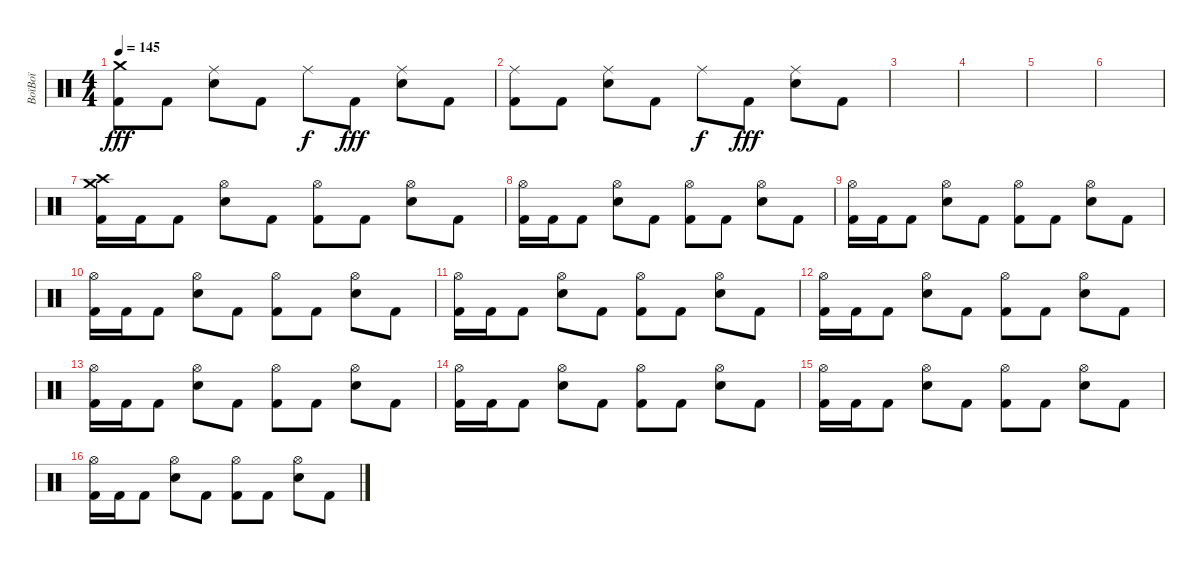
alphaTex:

\track ("BoïBoï" "BoïBoï") {instrument percussion}
\staff {score}
\articulation defaults
\ts (4 4)
\tempo 145
\clef neutral
\ks c
("Crash medium (hit)" "Kick (hit) 2").8{dy fff} "Kick (hit) 2".8 ("Ride (middle)" "Electric Snare (hit)").8 "Kick (hit) 2".8 "Ride (middle)".8{dy f} "Kick (hit) 2".8{dy fff} ("Ride (middle)" "Electric Snare (hit)").8 "Kick (hit) 2".8 |
("Ride (middle)" "Kick (hit) 2").8 "Kick (hit) 2".8 ("Ride (middle)" "Electric Snare (hit)").8 "Kick (hit) 2".8 "Ride (middle)".8{dy f} "Kick (hit) 2".8{dy fff} ("Ride (middle)" "Electric Snare (hit)").8 "Kick (hit) 2".8 |
|
|
|
|
("Crash medium (hit)" "Crash high (hit)" "Kick (hit) 2").16 "Kick (hit) 2".16 "Kick (hit) 2".8 ("Hi-Hat (open)" "Electric Snare (hit)").8 "Kick (hit) 2".8 ("Hi-Hat (open)" "Kick (hit) 2").8 "Kick (hit) 2".8 ("Hi-Hat (open)" "Electric Snare (hit)").8 "Kick (hit) 2".8 |
("Hi-Hat (open)" "Kick (hit) 2").16 "Kick (hit) 2".16 "Kick (hit) 2".8 ("Hi-Hat (open)" "Electric Snare (hit)").8 "Kick (hit) 2".8 ("Hi-Hat (open)" "Kick (hit) 2").8 "Kick (hit) 2".8 ("Hi-Hat (open)" "Electric Snare (hit)").8 "Kick (hit) 2".8 |
("Hi-Hat (open)" "Kick (hit) 2").16 "Kick (hit) 2".16 "Kick (hit) 2".8 ("Hi-Hat (open)" "Electric Snare (hit)").8 "Kick (hit) 2".8 ("Hi-Hat (open)" "Kick (hit) 2").8 "Kick (hit) 2".8 ("Hi-Hat (open)" "Electric Snare (hit)").8 "Kick (hit) 2".8 |
("Hi-Hat (open)" "Kick (hit) 2").16 "Kick (hit) 2".16 "Kick (hit) 2".8 ("Hi-Hat (open)" "Electric Snare (hit)").8 "Kick (hit) 2".8 ("Hi-Hat (open)" "Kick (hit) 2").8 "Kick (hit) 2".8 ("Hi-Hat (open)" "Electric Snare (hit)").8 "Kick (hit) 2".8 |
("Hi-Hat (open)" "Kick (hit) 2").16 "Kick (hit) 2".16 "Kick (hit) 2".8 ("Hi-Hat (open)" "Electric Snare (hit)").8 "Kick (hit) 2".8 ("Hi-Hat (open)" "Kick (hit) 2").8 "Kick (hit) 2".8 ("Hi-Hat (open)" "Electric Snare (hit)").8 "Kick (hit) 2".8 |
("Hi-Hat (open)" "Kick (hit) 2").16 "Kick (hit) 2".16 "Kick (hit) 2".8 ("Hi-Hat (open)" "Electric Snare (hit)").8 "Kick (hit) 2".8 ("Hi-Hat (open)" "Kick (hit) 2").8 "Kick (hit) 2".8 ("Hi-Hat (open)" "Electric Snare (hit)").8 "Kick (hit) 2".8 |
("Hi-Hat (open)" "Kick (hit) 2").16 "Kick (hit) 2".16 "Kick (hit) 2".8 ("Hi-Hat (open)" "Electric Snare (hit)").8 "Kick (hit) 2".8 ("Hi-Hat (open)" "Kick (hit) 2").8 "Kick (hit) 2".8 ("Hi-Hat (open)" "Electric Snare (hit)").8 "Kick (hit) 2".8 |
("Hi-Hat (open)" "Kick (hit) 2").16 "Kick (hit) 2".16 "Kick (hit) 2".8 ("Hi-Hat (open)" "Electric Snare (hit)").8 "Kick (hit) 2".8 ("Hi-Hat (open)" "Kick (hit) 2").8 "Kick (hit) 2".8 ("Hi-Hat (open)" "Electric Snare (hit)").8 "Kick (hit) 2".8 |
("Hi-Hat (open)" "Kick (hit) 2").16 "Kick (hit) 2".16 "Kick (hit) 2".8 ("Hi-Hat (open)" "Electric Snare (hit)").8 "Kick (hit) 2".8 ("Hi-Hat (open)" "Kick (hit) 2").8 "Kick (hit) 2".8 ("Hi-Hat (open)" "Electric Snare (hit)").8 "Kick (hit) 2".8 |
("Hi-Hat (open)" "Kick (hit) 2").16 "Kick (hit) 2".16 "Kick (hit) 2".8 ("Hi-Hat (open)" "Electric Snare (hit)").8 "Kick (hit) 2".8 ("Hi-Hat (open)" "Kick (hit) 2").8 "Kick (hit) 2".8 ("Hi-Hat (open)" "Electric Snare (hit)").8 "Kick (hit) 2".8
